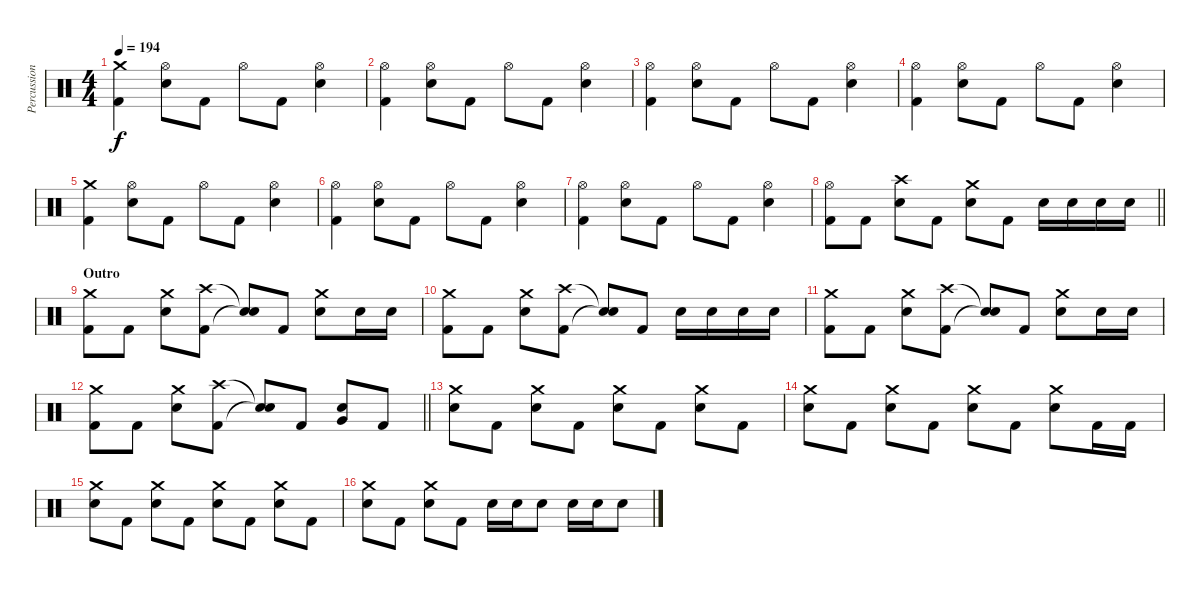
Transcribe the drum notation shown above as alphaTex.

\track ("Percussions" "Percussion") {instrument percussion}
\staff {score}
\articulation defaults
\ts (4 4)
\tempo 194
\clef neutral
\ks c
("Crash medium (hit)" "Kick (hit) 2").4{dy f} ("Hi-Hat (open)" "Electric Snare (hit)").8 "Kick (hit) 2".8 "Hi-Hat (open)".8 "Kick (hit) 2".8 ("Hi-Hat (open)" "Electric Snare (hit)").4 |
("Hi-Hat (open)" "Kick (hit) 2").4 ("Hi-Hat (open)" "Electric Snare (hit)").8 "Kick (hit) 2".8 "Hi-Hat (open)".8 "Kick (hit) 2".8 ("Hi-Hat (open)" "Electric Snare (hit)").4 |
("Hi-Hat (open)" "Kick (hit) 2").4 ("Hi-Hat (open)" "Electric Snare (hit)").8 "Kick (hit) 2".8 "Hi-Hat (open)".8 "Kick (hit) 2".8 ("Hi-Hat (open)" "Electric Snare (hit)").4 |
("Hi-Hat (open)" "Kick (hit) 2").4 ("Hi-Hat (open)" "Electric Snare (hit)").8 "Kick (hit) 2".8 "Hi-Hat (open)".8 "Kick (hit) 2".8 ("Hi-Hat (open)" "Electric Snare (hit)").4 |
("Crash medium (hit)" "Kick (hit) 2").4 ("Hi-Hat (open)" "Electric Snare (hit)").8 "Kick (hit) 2".8 "Hi-Hat (open)".8 "Kick (hit) 2".8 ("Hi-Hat (open)" "Electric Snare (hit)").4 |
("Hi-Hat (open)" "Kick (hit) 2").4 ("Hi-Hat (open)" "Electric Snare (hit)").8 "Kick (hit) 2".8 "Hi-Hat (open)".8 "Kick (hit) 2".8 ("Hi-Hat (open)" "Electric Snare (hit)").4 |
("Hi-Hat (open)" "Kick (hit) 2").4 ("Hi-Hat (open)" "Electric Snare (hit)").8 "Kick (hit) 2".8 "Hi-Hat (open)".8 "Kick (hit) 2".8 ("Hi-Hat (open)" "Electric Snare (hit)").4 |
\barLineRight lightlight
("Hi-Hat (open)" "Kick (hit) 2").8 "Kick (hit) 2".8 ("Crash high (hit)" "Electric Snare (hit)").8 "Kick (hit) 2".8 ("Crash medium (hit)" "Electric Snare (hit)").8 "Kick (hit) 2".8 "Electric Snare (hit)".16 "Electric Snare (hit)".16 "Electric Snare (hit)".16 "Electric Snare (hit)".16 |
\section ("" "Outro")
("Crash medium (hit)" "Kick (hit) 2").8 "Kick (hit) 2".8 ("Crash medium (hit)" "Electric Snare (hit)").8 ("Crash high (hit)" "Kick (hit) 2").8 ("Snare (hit)"{t} "Snare (hit)"{t}).8 "Kick (hit) 2".8 ("Crash medium (hit)" "Electric Snare (hit)").8 "Electric Snare (hit)".16 "Electric Snare (hit)".16 |
("Crash medium (hit)" "Kick (hit) 2").8 "Kick (hit) 2".8 ("Crash medium (hit)" "Electric Snare (hit)").8 ("Crash high (hit)" "Kick (hit) 2").8 ("Snare (hit)"{t} "Snare (hit)"{t}).8 "Kick (hit) 2".8 "Electric Snare (hit)".16 "Electric Snare (hit)".16 "Electric Snare (hit)".16 "Electric Snare (hit)".16 |
("Crash medium (hit)" "Kick (hit) 2").8 "Kick (hit) 2".8 ("Crash medium (hit)" "Electric Snare (hit)").8 ("Crash high (hit)" "Kick (hit) 2").8 ("Snare (hit)"{t} "Snare (hit)"{t}).8 "Kick (hit) 2".8 ("Crash medium (hit)" "Electric Snare (hit)").8 "Electric Snare (hit)".16 "Electric Snare (hit)".16 |
\barLineRight lightlight
("Crash medium (hit)" "Kick (hit) 2").8 "Kick (hit) 2".8 ("Crash medium (hit)" "Electric Snare (hit)").8 ("Crash high (hit)" "Kick (hit) 2").8 ("Snare (hit)"{t} "Snare (hit)"{t}).8 "Kick (hit) 2".8 ("Very Low Tom (hit)" "Electric Snare (hit)").8 "Kick (hit) 2".8 |
("Crash medium (hit)" "Electric Snare (hit)").8 "Kick (hit) 2".8 ("Crash medium (hit)" "Electric Snare (hit)").8 "Kick (hit) 2".8 ("Crash medium (hit)" "Electric Snare (hit)").8 "Kick (hit) 2".8 ("Crash medium (hit)" "Electric Snare (hit)").8 "Kick (hit) 2".8 |
("Crash medium (hit)" "Electric Snare (hit)").8 "Kick (hit) 2".8 ("Crash medium (hit)" "Electric Snare (hit)").8 "Kick (hit) 2".8 ("Crash medium (hit)" "Electric Snare (hit)").8 "Kick (hit) 2".8 ("Crash medium (hit)" "Electric Snare (hit)").8 "Kick (hit) 2".16 "Kick (hit) 2".16 |
("Crash medium (hit)" "Electric Snare (hit)").8 "Kick (hit) 2".8 ("Crash medium (hit)" "Electric Snare (hit)").8 "Kick (hit) 2".8 ("Crash medium (hit)" "Electric Snare (hit)").8 "Kick (hit) 2".8 ("Crash medium (hit)" "Electric Snare (hit)").8 "Kick (hit) 2".8 |
("Crash medium (hit)" "Electric Snare (hit)").8 "Kick (hit) 2".8 ("Crash medium (hit)" "Electric Snare (hit)").8 "Kick (hit) 2".8 "Electric Snare (hit)".16 "Electric Snare (hit)".16 "Electric Snare (hit)".8 "Electric Snare (hit)".16 "Electric Snare (hit)".16 "Electric Snare (hit)".8
